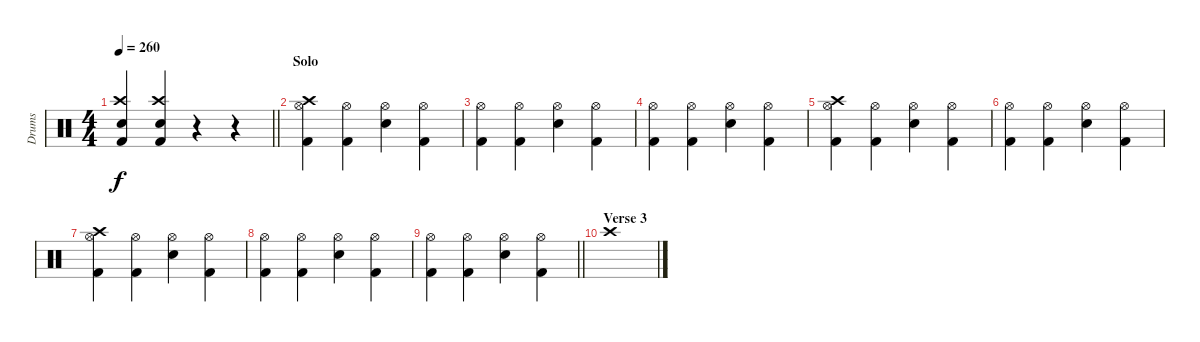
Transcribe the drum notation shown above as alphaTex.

\track ("Drums" "Drums") {instrument percussion bank 2}
\staff {score}
\articulation defaults
\ts (4 4)
\tempo 260
\clef neutral
\barLineRight lightlight
\ks c
("Kick (hit) 2" "Crash high (hit)" "Snare (hit) 2").4{dy f} ("Kick (hit) 2" "Crash high (hit)" "Snare (hit) 2").4 r.4 r.4 |
\section ("" "Solo")
("Kick (hit) 2" "Hi-Hat (open)" "Crash high (hit)").4 ("Kick (hit) 2" "Hi-Hat (open)").4 ("Snare (hit) 2" "Hi-Hat (open)").4 ("Kick (hit) 2" "Hi-Hat (open)").4 |
("Kick (hit) 2" "Hi-Hat (open)").4 ("Kick (hit) 2" "Hi-Hat (open)").4 ("Snare (hit) 2" "Hi-Hat (open)").4 ("Kick (hit) 2" "Hi-Hat (open)").4 |
("Kick (hit) 2" "Hi-Hat (open)").4 ("Kick (hit) 2" "Hi-Hat (open)").4 ("Snare (hit) 2" "Hi-Hat (open)").4 ("Kick (hit) 2" "Hi-Hat (open)").4 |
("Kick (hit) 2" "Hi-Hat (open)" "Crash high (hit)").4 ("Kick (hit) 2" "Hi-Hat (open)").4 ("Snare (hit) 2" "Hi-Hat (open)").4 ("Kick (hit) 2" "Hi-Hat (open)").4 |
("Kick (hit) 2" "Hi-Hat (open)").4 ("Kick (hit) 2" "Hi-Hat (open)").4 ("Snare (hit) 2" "Hi-Hat (open)").4 ("Kick (hit) 2" "Hi-Hat (open)").4 |
("Kick (hit) 2" "Hi-Hat (open)" "Crash high (hit)").4 ("Kick (hit) 2" "Hi-Hat (open)").4 ("Snare (hit) 2" "Hi-Hat (open)").4 ("Kick (hit) 2" "Hi-Hat (open)").4 |
("Kick (hit) 2" "Hi-Hat (open)").4 ("Kick (hit) 2" "Hi-Hat (open)").4 ("Snare (hit) 2" "Hi-Hat (open)").4 ("Kick (hit) 2" "Hi-Hat (open)").4 |
\barLineRight lightlight
("Kick (hit) 2" "Hi-Hat (open)").4 ("Kick (hit) 2" "Hi-Hat (open)").4 ("Snare (hit) 2" "Hi-Hat (open)").4 ("Kick (hit) 2" "Hi-Hat (open)").4 |
\section ("" "Verse 3")
"Crash high (hit)".1
